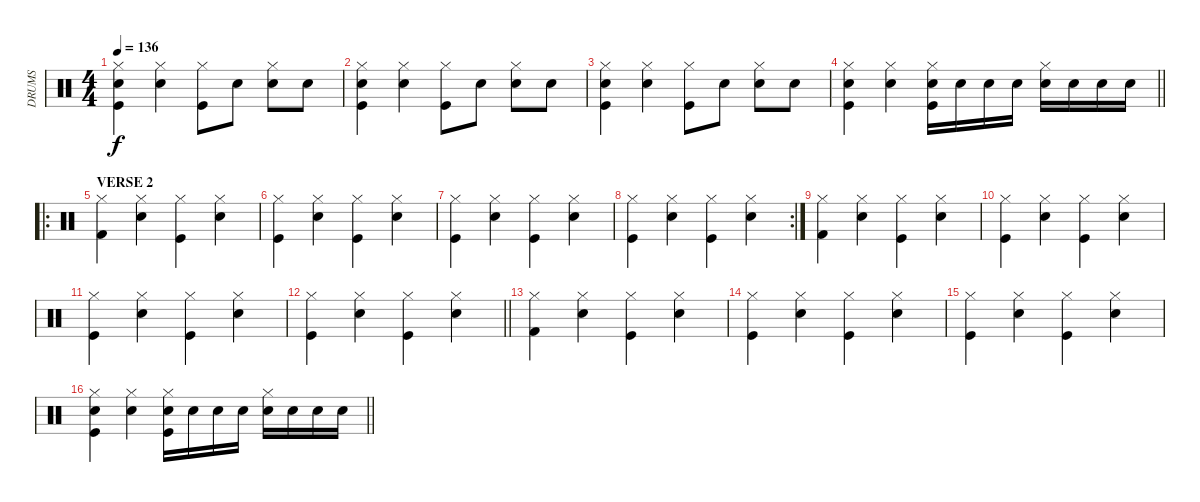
\track ("DRUMS" "DRUMS") {instrument percussion}
\staff {score}
\articulation defaults
\ts (4 4)
\tempo 136
\clef neutral
\ks c
("Hi-Hat (closed)" "Kick (hit)" "Snare (hit) 2").4{dy f} ("Hi-Hat (closed)" "Snare (hit) 2").4 ("Hi-Hat (closed)" "Kick (hit)").8 "Snare (hit) 2".8 ("Hi-Hat (closed)" "Snare (hit) 2").8 "Snare (hit) 2".8 |
("Hi-Hat (closed)" "Kick (hit)" "Snare (hit) 2").4 ("Hi-Hat (closed)" "Snare (hit) 2").4 ("Hi-Hat (closed)" "Kick (hit)").8 "Snare (hit) 2".8 ("Hi-Hat (closed)" "Snare (hit) 2").8 "Snare (hit) 2".8 |
("Hi-Hat (closed)" "Kick (hit)" "Snare (hit) 2").4 ("Hi-Hat (closed)" "Snare (hit) 2").4 ("Hi-Hat (closed)" "Kick (hit)").8 "Snare (hit) 2".8 ("Hi-Hat (closed)" "Snare (hit) 2").8 "Snare (hit) 2".8 |
\barLineRight lightlight
("Hi-Hat (closed)" "Kick (hit)" "Snare (hit) 2").4 ("Hi-Hat (closed)" "Snare (hit) 2").4 ("Hi-Hat (closed)" "Kick (hit)" "Snare (hit) 2").16 "Snare (hit) 2".16 "Snare (hit) 2".16 "Snare (hit) 2".16 ("Hi-Hat (closed)" "Snare (hit) 2").16 "Snare (hit) 2".16 "Snare (hit) 2".16 "Snare (hit) 2".16 |
\ro
\section ("" "VERSE 2")
("Hi-Hat (closed)" "Kick (hit) 2").4 ("Hi-Hat (closed)" "Snare (hit) 2").4 ("Hi-Hat (closed)" "Kick (hit)").4 ("Hi-Hat (closed)" "Snare (hit) 2").4 |
("Hi-Hat (closed)" "Kick (hit)").4 ("Hi-Hat (closed)" "Snare (hit) 2").4 ("Hi-Hat (closed)" "Kick (hit)").4 ("Hi-Hat (closed)" "Snare (hit) 2").4 |
("Hi-Hat (closed)" "Kick (hit)").4 ("Hi-Hat (closed)" "Snare (hit) 2").4 ("Hi-Hat (closed)" "Kick (hit)").4 ("Hi-Hat (closed)" "Snare (hit) 2").4 |
\rc 2
("Hi-Hat (closed)" "Kick (hit)").4 ("Hi-Hat (closed)" "Snare (hit) 2").4 ("Hi-Hat (closed)" "Kick (hit)").4 ("Hi-Hat (closed)" "Snare (hit) 2").4 |
("Hi-Hat (closed)" "Kick (hit) 2").4 ("Hi-Hat (closed)" "Snare (hit) 2").4 ("Hi-Hat (closed)" "Kick (hit)").4 ("Hi-Hat (closed)" "Snare (hit) 2").4 |
("Hi-Hat (closed)" "Kick (hit)").4 ("Hi-Hat (closed)" "Snare (hit) 2").4 ("Hi-Hat (closed)" "Kick (hit)").4 ("Hi-Hat (closed)" "Snare (hit) 2").4 |
("Hi-Hat (closed)" "Kick (hit)").4 ("Hi-Hat (closed)" "Snare (hit) 2").4 ("Hi-Hat (closed)" "Kick (hit)").4 ("Hi-Hat (closed)" "Snare (hit) 2").4 |
\barLineRight lightlight
("Hi-Hat (closed)" "Kick (hit)").4 ("Hi-Hat (closed)" "Snare (hit) 2").4 ("Hi-Hat (closed)" "Kick (hit)").4 ("Hi-Hat (closed)" "Snare (hit) 2").4 |
("Hi-Hat (closed)" "Kick (hit) 2").4 ("Hi-Hat (closed)" "Snare (hit) 2").4 ("Hi-Hat (closed)" "Kick (hit)").4 ("Hi-Hat (closed)" "Snare (hit) 2").4 |
("Hi-Hat (closed)" "Kick (hit)").4 ("Hi-Hat (closed)" "Snare (hit) 2").4 ("Hi-Hat (closed)" "Kick (hit)").4 ("Hi-Hat (closed)" "Snare (hit) 2").4 |
("Hi-Hat (closed)" "Kick (hit)").4 ("Hi-Hat (closed)" "Snare (hit) 2").4 ("Hi-Hat (closed)" "Kick (hit)").4 ("Hi-Hat (closed)" "Snare (hit) 2").4 |
\barLineRight lightlight
("Hi-Hat (closed)" "Kick (hit)" "Snare (hit) 2").4 ("Hi-Hat (closed)" "Snare (hit) 2").4 ("Hi-Hat (closed)" "Kick (hit)" "Snare (hit) 2").16 "Snare (hit) 2".16 "Snare (hit) 2".16 "Snare (hit) 2".16 ("Hi-Hat (closed)" "Snare (hit) 2").16 "Snare (hit) 2".16 "Snare (hit) 2".16 "Snare (hit) 2".16
